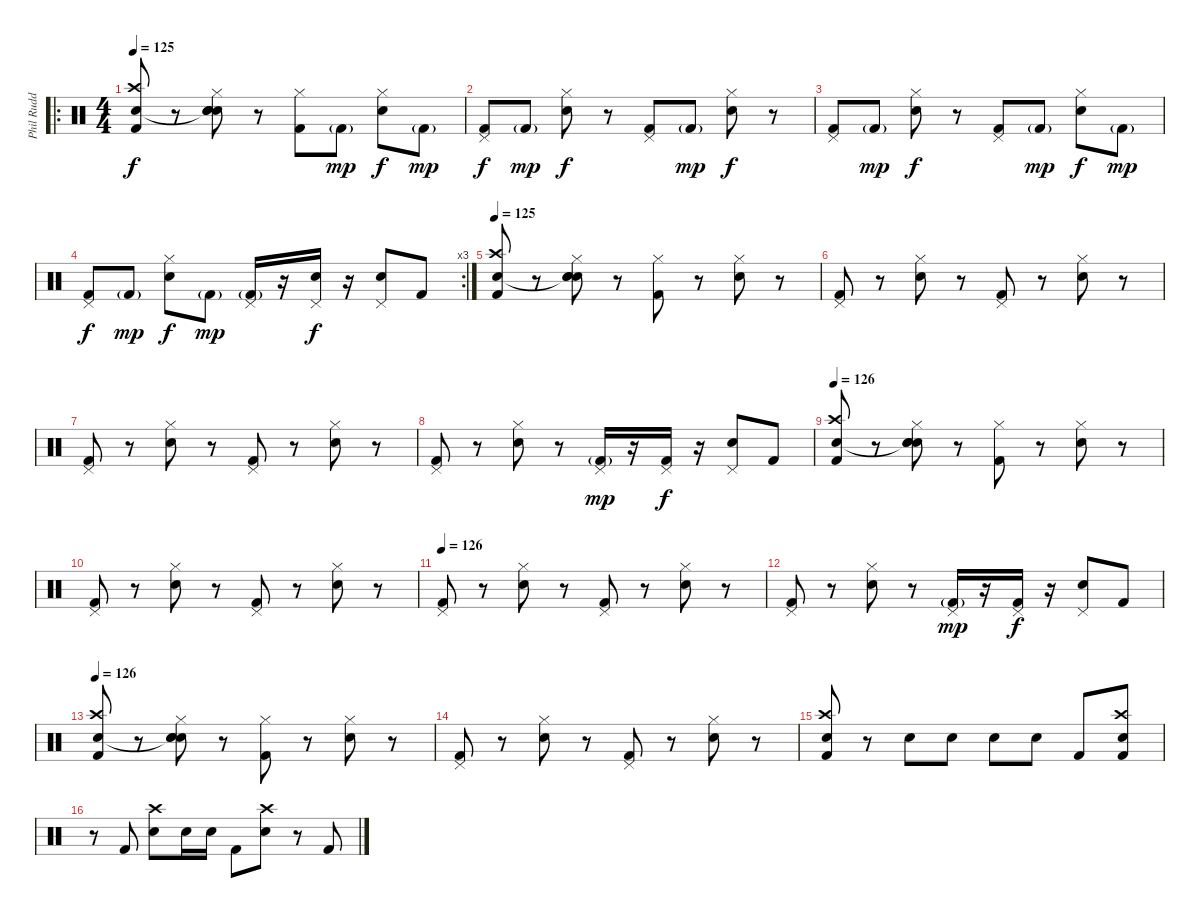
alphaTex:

\track ("Phil Rudd" "Phil Rudd") {instrument percussion}
\staff {score}
\articulation defaults
\ro
\ts (4 4)
\tempo 125
\clef neutral
\ks c
("Kick (hit) 2" "Crash high (hit)" "Snare (hit) 2").8{dy f} r.8 ("Hi-Hat (closed)" "Snare (hit) 2" "Snare (hit)"{t} "Snare (hit)").8 r.8 ("Kick (hit) 2" "Hi-Hat (closed)").8 "Kick (hit) 2"{g}.8{dy mp} ("Hi-Hat (closed)" "Snare (hit) 2").8{dy f} "Kick (hit) 2"{g}.8{dy mp} |
("Kick (hit) 2" "Pedal Hi-Hat (hit)").8{dy f} "Kick (hit) 2"{g}.8{dy mp} ("Snare (hit) 2" "Hi-Hat (closed)").8{dy f} r.8 ("Kick (hit) 2" "Pedal Hi-Hat (hit)").8 "Kick (hit) 2"{g}.8{dy mp} ("Snare (hit) 2" "Hi-Hat (closed)").8{dy f} r.8 |
("Kick (hit) 2" "Pedal Hi-Hat (hit)").8 "Kick (hit) 2"{g}.8{dy mp} ("Snare (hit) 2" "Hi-Hat (closed)").8{dy f} r.8 ("Kick (hit) 2" "Pedal Hi-Hat (hit)").8 "Kick (hit) 2"{g}.8{dy mp} ("Snare (hit) 2" "Hi-Hat (closed)").8{dy f} "Kick (hit) 2"{g}.8{dy mp} |
\rc 3
("Kick (hit) 2" "Pedal Hi-Hat (hit)").8{dy f} "Kick (hit) 2"{g}.8{dy mp} ("Snare (hit) 2" "Hi-Hat (closed)").8{dy f} "Kick (hit) 2"{g}.8{dy mp} ("Kick (hit) 2"{g} "Pedal Hi-Hat (hit)").16 r.16 ("Snare (hit) 2" "Pedal Hi-Hat (hit)").16{dy f} r.16 ("Snare (hit) 2" "Pedal Hi-Hat (hit)").8 "Kick (hit) 2".8 |
\tempo 125
("Kick (hit) 2" "Crash high (hit)" "Snare (hit) 2").8 r.8 ("Hi-Hat (closed)" "Snare (hit) 2" "Snare (hit)"{t} "Snare (hit)").8 r.8 ("Kick (hit) 2" "Hi-Hat (closed)").8 r.8 ("Hi-Hat (closed)" "Snare (hit) 2").8 r.8 |
("Kick (hit) 2" "Pedal Hi-Hat (hit)").8 r.8 ("Snare (hit) 2" "Hi-Hat (closed)").8 r.8 ("Kick (hit) 2" "Pedal Hi-Hat (hit)").8 r.8 ("Snare (hit) 2" "Hi-Hat (closed)").8 r.8 |
("Kick (hit) 2" "Pedal Hi-Hat (hit)").8 r.8 ("Snare (hit) 2" "Hi-Hat (closed)").8 r.8 ("Kick (hit) 2" "Pedal Hi-Hat (hit)").8 r.8 ("Snare (hit) 2" "Hi-Hat (closed)").8 r.8 |
("Kick (hit) 2" "Pedal Hi-Hat (hit)").8 r.8 ("Snare (hit) 2" "Hi-Hat (closed)").8 r.8 ("Kick (hit) 2"{g} "Pedal Hi-Hat (hit)").16{dy mp} r.16 ("Kick (hit) 2" "Pedal Hi-Hat (hit)").16{dy f} r.16 ("Snare (hit) 2" "Pedal Hi-Hat (hit)").8 "Kick (hit) 2".8 |
\tempo 126
("Kick (hit) 2" "Crash high (hit)" "Snare (hit) 2").8 r.8 ("Hi-Hat (closed)" "Snare (hit) 2" "Snare (hit)"{t} "Snare (hit)").8 r.8 ("Kick (hit) 2" "Hi-Hat (closed)").8 r.8 ("Hi-Hat (closed)" "Snare (hit) 2").8 r.8 |
("Kick (hit) 2" "Pedal Hi-Hat (hit)").8 r.8 ("Snare (hit) 2" "Hi-Hat (closed)").8 r.8 ("Kick (hit) 2" "Pedal Hi-Hat (hit)").8 r.8 ("Snare (hit) 2" "Hi-Hat (closed)").8 r.8 |
\tempo 126
("Kick (hit) 2" "Pedal Hi-Hat (hit)").8 r.8 ("Snare (hit) 2" "Hi-Hat (closed)").8 r.8 ("Kick (hit) 2" "Pedal Hi-Hat (hit)").8 r.8 ("Snare (hit) 2" "Hi-Hat (closed)").8 r.8 |
("Kick (hit) 2" "Pedal Hi-Hat (hit)").8 r.8 ("Snare (hit) 2" "Hi-Hat (closed)").8 r.8 ("Kick (hit) 2"{g} "Pedal Hi-Hat (hit)").16{dy mp} r.16 ("Kick (hit) 2" "Pedal Hi-Hat (hit)").16{dy f} r.16 ("Snare (hit) 2" "Pedal Hi-Hat (hit)").8 "Kick (hit) 2".8 |
\tempo 126
("Kick (hit) 2" "Crash high (hit)" "Snare (hit) 2").8 r.8 ("Hi-Hat (closed)" "Snare (hit) 2" "Snare (hit)"{t} "Snare (hit)").8 r.8 ("Kick (hit) 2" "Hi-Hat (closed)").8 r.8 ("Hi-Hat (closed)" "Snare (hit) 2").8 r.8 |
("Kick (hit) 2" "Pedal Hi-Hat (hit)").8 r.8 ("Snare (hit) 2" "Hi-Hat (closed)").8 r.8 ("Kick (hit) 2" "Pedal Hi-Hat (hit)").8 r.8 ("Snare (hit) 2" "Hi-Hat (closed)").8 r.8 |
("Snare (hit) 2" "Kick (hit) 2" "Crash high (hit)").8 r.8 "Snare (hit) 2".8 "Snare (hit) 2".8 "Snare (hit) 2".8 "Snare (hit) 2".8 "Kick (hit) 2".8 ("Crash high (hit)" "Snare (hit) 2" "Kick (hit) 2").8 |
r.8 "Kick (hit) 2".8 ("Crash high (hit)" "Snare (hit) 2").8 "Snare (hit) 2".16 "Snare (hit) 2".16 "Kick (hit) 2".8 ("Crash high (hit)" "Snare (hit) 2").8 r.8 "Kick (hit) 2".8
